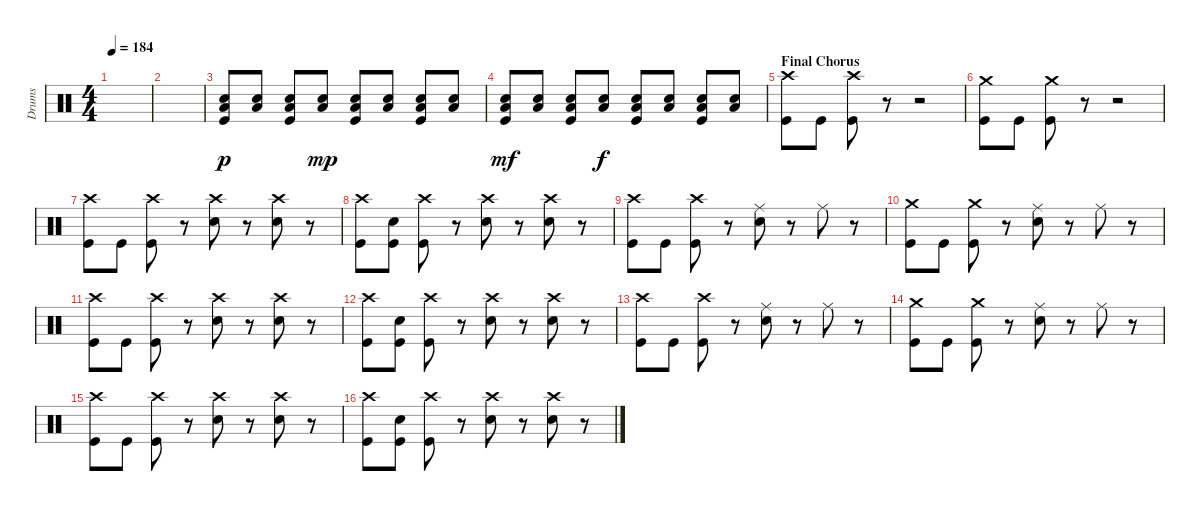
\track ("Drums" "Drums") {instrument percussion}
\staff {score}
\articulation defaults
\ts (4 4)
\tempo 184
\clef neutral
\ks c
|
|
("Low Tom (hit)" "Electric Snare (hit)" "Kick (hit)").8{dy p} ("Low Tom (hit)" "Electric Snare (hit)").8 ("Low Tom (hit)" "Electric Snare (hit)" "Kick (hit)").8 ("Low Tom (hit)" "Electric Snare (hit)").8{dy mp} ("Low Tom (hit)" "Electric Snare (hit)" "Kick (hit)").8 ("Low Tom (hit)" "Electric Snare (hit)").8 ("Low Tom (hit)" "Electric Snare (hit)" "Kick (hit)").8 ("Low Tom (hit)" "Electric Snare (hit)").8 |
("Low Tom (hit)" "Electric Snare (hit)" "Kick (hit)").8{dy mf} ("Low Tom (hit)" "Electric Snare (hit)").8 ("Low Tom (hit)" "Electric Snare (hit)" "Kick (hit)").8 ("Low Tom (hit)" "Electric Snare (hit)").8{dy f} ("Low Tom (hit)" "Electric Snare (hit)" "Kick (hit)").8 ("Low Tom (hit)" "Electric Snare (hit)").8 ("Low Tom (hit)" "Electric Snare (hit)" "Kick (hit)").8 ("Low Tom (hit)" "Electric Snare (hit)").8 |
\section ("" "Final Chorus")
("Crash high (hit)" "Kick (hit)").8 "Kick (hit)".8 ("Crash high (hit)" "Kick (hit)").8 r.8 r.2 |
("Crash medium (hit)" "Kick (hit)").8 "Kick (hit)".8 ("Crash medium (hit)" "Kick (hit)").8 r.8 r.2 |
("Crash high (hit)" "Kick (hit)").8 "Kick (hit)".8 ("Crash high (hit)" "Kick (hit)").8 r.8 ("Crash high (hit)" "Electric Snare (hit)").8 r.8 ("Crash high (hit)" "Electric Snare (hit)").8 r.8 |
("Crash high (hit)" "Kick (hit)").8 ("Electric Snare (hit)" "Kick (hit)").8 ("Crash high (hit)" "Kick (hit)").8 r.8 ("Crash high (hit)" "Electric Snare (hit)").8 r.8 ("Crash high (hit)" "Electric Snare (hit)").8 r.8 |
("Crash high (hit)" "Kick (hit)").8 "Kick (hit)".8 ("Crash high (hit)" "Kick (hit)").8 r.8 ("Ride (middle)" "Electric Snare (hit)").8 r.8 "Ride (middle)".8 r.8 |
("Crash medium (hit)" "Kick (hit)").8 "Kick (hit)".8 ("Crash medium (hit)" "Kick (hit)").8 r.8 ("Ride (middle)" "Electric Snare (hit)").8 r.8 "Ride (middle)".8 r.8 |
("Crash high (hit)" "Kick (hit)").8 "Kick (hit)".8 ("Crash high (hit)" "Kick (hit)").8 r.8 ("Crash high (hit)" "Electric Snare (hit)").8 r.8 ("Crash high (hit)" "Electric Snare (hit)").8 r.8 |
("Crash high (hit)" "Kick (hit)").8 ("Electric Snare (hit)" "Kick (hit)").8 ("Crash high (hit)" "Kick (hit)").8 r.8 ("Crash high (hit)" "Electric Snare (hit)").8 r.8 ("Crash high (hit)" "Electric Snare (hit)").8 r.8 |
("Crash high (hit)" "Kick (hit)").8 "Kick (hit)".8 ("Crash high (hit)" "Kick (hit)").8 r.8 ("Ride (middle)" "Electric Snare (hit)").8 r.8 "Ride (middle)".8 r.8 |
("Crash medium (hit)" "Kick (hit)").8 "Kick (hit)".8 ("Crash medium (hit)" "Kick (hit)").8 r.8 ("Ride (middle)" "Electric Snare (hit)").8 r.8 "Ride (middle)".8 r.8 |
("Crash high (hit)" "Kick (hit)").8 "Kick (hit)".8 ("Crash high (hit)" "Kick (hit)").8 r.8 ("Crash high (hit)" "Electric Snare (hit)").8 r.8 ("Crash high (hit)" "Electric Snare (hit)").8 r.8 |
("Crash high (hit)" "Kick (hit)").8 ("Electric Snare (hit)" "Kick (hit)").8 ("Crash high (hit)" "Kick (hit)").8 r.8 ("Crash high (hit)" "Electric Snare (hit)").8 r.8 ("Crash high (hit)" "Electric Snare (hit)").8 r.8
